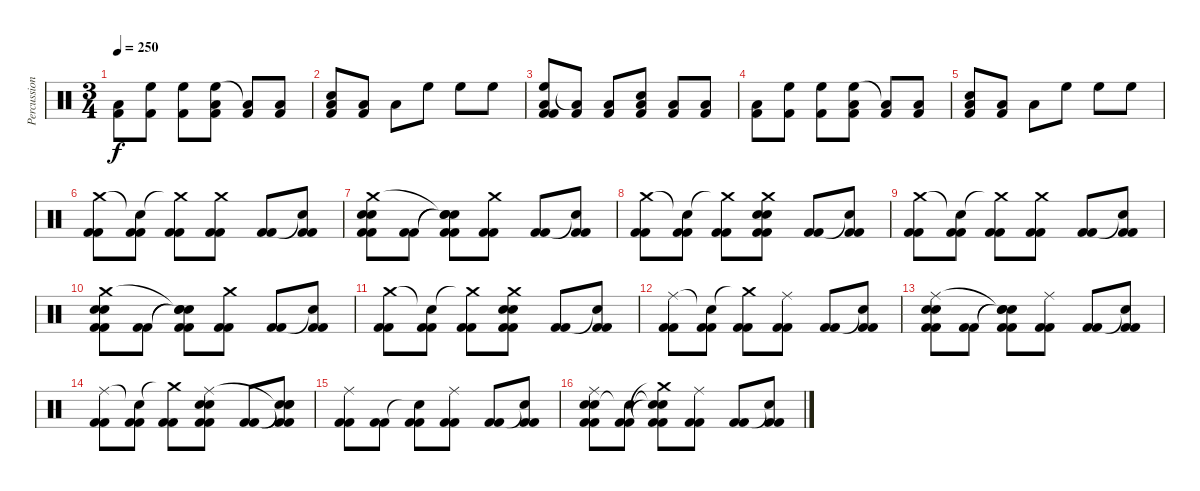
\track ("Percussion" "Percussion") {instrument percussion}
\staff {score}
\articulation defaults
\ts (3 4)
\tempo 250
\clef neutral
\ks c
("Low Tom (hit)" "Kick (hit) 2").8{dy f} ("High Floor Tom (hit)" "Kick (hit) 2").8 ("High Floor Tom (hit)" "Kick (hit) 2").8 ("High Floor Tom (hit)" "Low Floor Tom (hit)" "Kick (hit) 2").8 ("Low Floor Tom (hit)"{t} "Kick (hit) 2").8 ("Low Floor Tom (hit)" "Kick (hit) 2").8 |
("Snare (hit) 2" "Low Tom (hit)" "Kick (hit) 2").8 ("Low Tom (hit)" "Kick (hit) 2").8 "Low Tom (hit)".8 "High Floor Tom (hit)".8 "High Floor Tom (hit)".8 "High Floor Tom (hit)".8 |
("High Floor Tom (hit)" "Low Floor Tom (hit)" "Kick (hit) 2" "Kick (hit) 2").8 ("Low Floor Tom (hit)"{t} "Kick (hit) 2").8 ("Low Floor Tom (hit)" "Kick (hit) 2").8 ("Snare (hit) 2" "Low Tom (hit)" "Kick (hit) 2").8 ("Low Tom (hit)" "Kick (hit) 2").8 ("Low Tom (hit)" "Kick (hit) 2").8 |
("Low Tom (hit)" "Kick (hit) 2").8 ("High Floor Tom (hit)" "Kick (hit) 2").8 ("High Floor Tom (hit)" "Kick (hit) 2").8 ("High Floor Tom (hit)" "Low Floor Tom (hit)" "Kick (hit) 2").8 ("Low Floor Tom (hit)"{t} "Kick (hit) 2").8 ("Low Floor Tom (hit)" "Kick (hit) 2").8 |
("Snare (hit) 2" "Low Tom (hit)" "Kick (hit) 2").8 ("Low Tom (hit)" "Kick (hit) 2").8 "Low Tom (hit)".8 "High Floor Tom (hit)".8 "High Floor Tom (hit)".8 "High Floor Tom (hit)".8 |
("Crash medium (hit)" "Kick (hit) 2" "Kick (hit) 2").8 ("Snare (hit)"{t} "Kick (hit) 2" "Kick (hit) 2").8 ("Crash medium (hit)"{t} "Kick (hit) 2" "Kick (hit) 2").8 ("Crash medium (hit)" "Kick (hit) 2" "Kick (hit) 2").8 ("Kick (hit) 2" "Kick (hit) 2").8 ("Snare (hit)"{t} "Kick (hit) 2" "Kick (hit) 2").8 |
("Snare (hit) 2" "Snare (hit) 2" "Crash medium (hit)" "Kick (hit) 2" "Kick (hit) 2").8 ("Kick (hit) 2" "Kick (hit) 2").8 ("Snare (hit)"{t} "Snare (hit)"{t} "Snare (hit)"{t} "Kick (hit) 2" "Kick (hit) 2").8 ("Crash medium (hit)" "Kick (hit) 2" "Kick (hit) 2").8 ("Kick (hit) 2" "Kick (hit) 2").8 ("Snare (hit)"{t} "Kick (hit) 2" "Kick (hit) 2").8 |
("Crash medium (hit)" "Kick (hit) 2" "Kick (hit) 2").8 ("Snare (hit)"{t} "Kick (hit) 2" "Kick (hit) 2").8 ("Crash medium (hit)"{t} "Kick (hit) 2" "Kick (hit) 2").8 ("Snare (hit) 2" "Snare (hit) 2" "Crash medium (hit)" "Kick (hit) 2" "Kick (hit) 2").8 ("Kick (hit) 2" "Kick (hit) 2").8 ("Snare (hit)"{t} "Kick (hit) 2" "Kick (hit) 2").8 |
("Crash medium (hit)" "Kick (hit) 2" "Kick (hit) 2").8 ("Snare (hit)"{t} "Kick (hit) 2" "Kick (hit) 2").8 ("Crash medium (hit)"{t} "Kick (hit) 2" "Kick (hit) 2").8 ("Crash medium (hit)" "Kick (hit) 2" "Kick (hit) 2").8 ("Kick (hit) 2" "Kick (hit) 2").8 ("Snare (hit)"{t} "Kick (hit) 2" "Kick (hit) 2").8 |
("Snare (hit) 2" "Snare (hit) 2" "Crash medium (hit)" "Kick (hit) 2" "Kick (hit) 2").8 ("Kick (hit) 2" "Kick (hit) 2").8 ("Snare (hit)"{t} "Snare (hit)"{t} "Snare (hit)"{t} "Kick (hit) 2" "Kick (hit) 2").8 ("Crash medium (hit)" "Kick (hit) 2" "Kick (hit) 2").8 ("Kick (hit) 2" "Kick (hit) 2").8 ("Snare (hit)"{t} "Kick (hit) 2" "Kick (hit) 2").8 |
("Crash medium (hit)" "Kick (hit) 2" "Kick (hit) 2").8 ("Snare (hit)"{t} "Kick (hit) 2" "Kick (hit) 2").8 ("Crash medium (hit)"{t} "Kick (hit) 2" "Kick (hit) 2").8 ("Snare (hit) 2" "Snare (hit) 2" "Crash medium (hit)" "Kick (hit) 2" "Kick (hit) 2").8 ("Kick (hit) 2" "Kick (hit) 2").8 ("Snare (hit)"{t} "Kick (hit) 2" "Kick (hit) 2").8 |
("Ride (middle)" "Kick (hit) 2" "Kick (hit) 2").8 ("Snare (hit)"{t} "Kick (hit) 2" "Kick (hit) 2").8 ("Crash medium (hit)"{t} "Kick (hit) 2" "Kick (hit) 2").8 ("Ride (middle)" "Kick (hit) 2" "Kick (hit) 2").8 ("Kick (hit) 2" "Kick (hit) 2").8 ("Snare (hit)"{t} "Kick (hit) 2" "Kick (hit) 2").8 |
("Snare (hit) 2" "Snare (hit) 2" "Ride (middle)" "Kick (hit) 2" "Kick (hit) 2").8 ("Kick (hit) 2" "Kick (hit) 2").8 ("Snare (hit)"{t} "Snare (hit)"{t} "Snare (hit)"{t} "Kick (hit) 2" "Kick (hit) 2").8 ("Ride (middle)" "Kick (hit) 2" "Kick (hit) 2").8 ("Kick (hit) 2" "Kick (hit) 2").8 ("Snare (hit)"{t} "Kick (hit) 2" "Kick (hit) 2").8 |
("Ride (middle)" "Kick (hit) 2" "Kick (hit) 2").8 ("Snare (hit)"{t} "Kick (hit) 2" "Kick (hit) 2").8 ("Crash medium (hit)"{t} "Kick (hit) 2" "Kick (hit) 2").8 ("Snare (hit) 2" "Snare (hit) 2" "Ride (middle)" "Kick (hit) 2" "Kick (hit) 2").8 ("Kick (hit) 2" "Kick (hit) 2").8 ("Snare (hit)"{t} "Snare (hit)"{t} "Snare (hit)"{t} "Kick (hit) 2" "Kick (hit) 2").8 |
("Ride (middle)" "Kick (hit) 2" "Kick (hit) 2").8 ("Kick (hit) 2" "Kick (hit) 2").8 ("Snare (hit)"{t} "Kick (hit) 2" "Kick (hit) 2").8 ("Ride (middle)" "Kick (hit) 2" "Kick (hit) 2").8 ("Kick (hit) 2" "Kick (hit) 2").8 ("Snare (hit)"{t} "Kick (hit) 2" "Kick (hit) 2").8 |
("Snare (hit) 2" "Snare (hit) 2" "Ride (middle)" "Kick (hit) 2" "Kick (hit) 2").8 ("Snare (hit)"{t} "Kick (hit) 2" "Kick (hit) 2").8 ("Snare (hit)"{t} "Snare (hit)"{t} "Crash medium (hit)"{t} "Kick (hit) 2" "Kick (hit) 2").8 ("Ride (middle)" "Kick (hit) 2" "Kick (hit) 2").8 ("Kick (hit) 2" "Kick (hit) 2").8 ("Snare (hit)"{t} "Kick (hit) 2" "Kick (hit) 2").8
